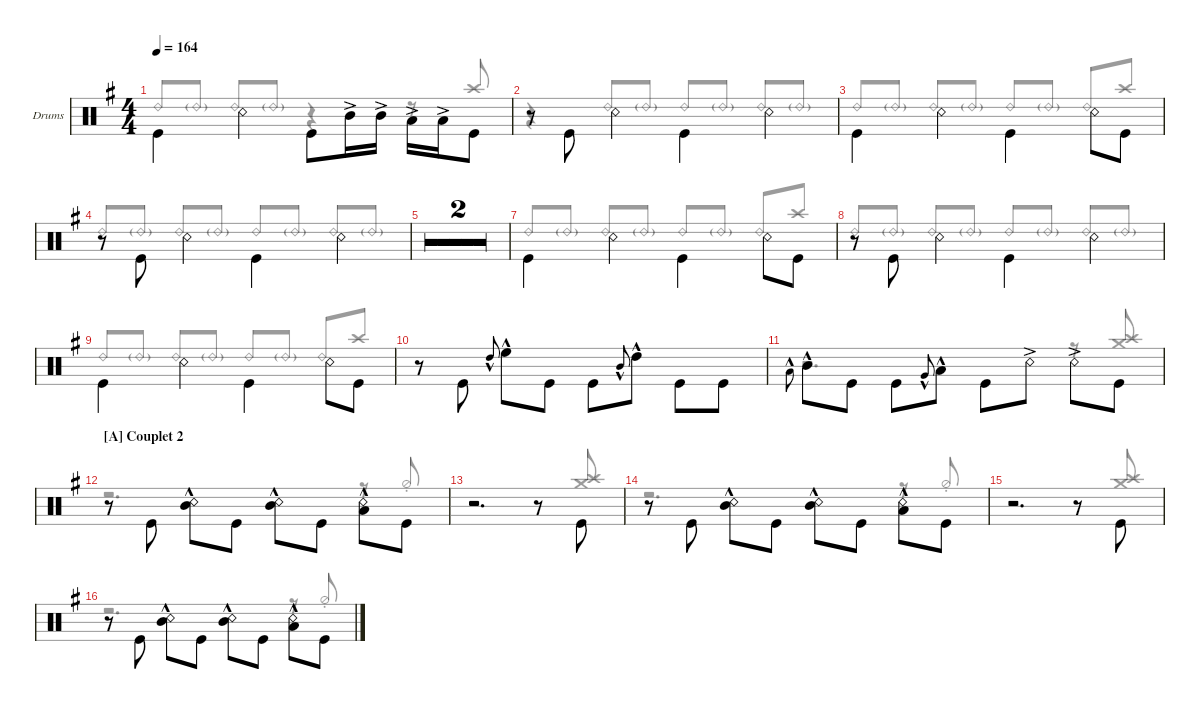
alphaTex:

\defaultSystemsLayout 4
\hideDynamics
\bracketExtendMode groupsimilarinstruments
\firstSystemTrackNameOrientation horizontal
\otherSystemsTrackNameOrientation horizontal
\track ("Drumkit" "Drums") {multiBarRest instrument percussion}
\staff {score}
\articulation defaults
\voice
\ts (4 4)
\tempo 164
\clef neutral
\ks eminor "Kick (hit)".4{dy ff beam invert} "Snare (rim shot)".4{beam invert} "Kick (hit)".8{beam invert} "Mid Tom (hit)"{ac}.16 "Mid Tom (hit)"{ac}.16 "Low Tom (hit)"{ac}.16{beam invert} "Low Tom (hit)"{ac}.16 "Kick (hit)".8
|
r.8 "Kick (hit)".8{beam invert} "Snare (rim shot)".4{beam invert} "Kick (hit)".4{beam invert} "Snare (rim shot)".4{beam invert} |
"Kick (hit)".4{beam invert} "Snare (rim shot)".4{beam invert} "Kick (hit)".4{beam invert} "Snare (rim shot)".8{beam invert} "Kick (hit)".8 |
r.8 "Kick (hit)".8{beam invert} "Snare (rim shot)".4{beam invert} "Kick (hit)".4{beam invert} "Snare (rim shot)".4{beam invert} |
\simile firstofdouble
|
\simile secondofdouble
|
\simile none "Kick (hit)".4{beam invert} "Snare (rim shot)".4{beam invert} "Kick (hit)".4{beam invert} "Snare (rim shot)".8{beam invert} "Kick (hit)".8
|
r.8 "Kick (hit)".8{beam invert} "Snare (rim shot)".4{beam invert} "Kick (hit)".4{beam invert} "Snare (rim shot)".4{beam invert} |
"Kick (hit)".4{beam invert} "Snare (rim shot)".4{beam invert} "Kick (hit)".4{beam invert} "Snare (rim shot)".8{beam invert} "Kick (hit)".8 |
r.8 "Kick (hit)".8{beam invert} "High Tom (hit)"{hac}.8{gr onbeat} "High Floor Tom (hit)"{hac}.8{beam invert} "Kick (hit)".8 "Kick (hit)".8{beam invert} "Mid Tom (hit)"{hac}.8{gr onbeat} "High Tom (hit)"{hac}.8 "Kick (hit)".8{beam invert} "Kick (hit)".8 |
"Low Tom (hit)"{hac}.8{gr onbeat beam invert} "Mid Tom (hit)"{hac}.8 "Kick (hit)".8{beam invert} "Kick (hit)".8{beam invert} "Very Low Tom (hit)"{hac}.8{gr onbeat} "Low Tom (hit)"{hac}.8 "Kick (hit)".8{beam invert} "Snare (rim shot)"{ac}.8 "Snare (rim shot)"{ac}.8{beam invert} "Kick (hit)".8 |
\section ("A" "Couplet 2")
r.8 "Kick (hit)".8{beam invert} ("Snare (rim shot)" "Mid Tom (hit)"{hac}).8{beam invert} "Kick (hit)".8 ("Snare (rim shot)" "Mid Tom (hit)"{hac}).8{beam invert} "Kick (hit)".8 ("Snare (rim shot)" "Low Tom (hit)"{hac}).8{beam invert} "Kick (hit)".8 |
r.2{d} r.8 "Kick (hit)".8{beam invert} |
r.8 "Kick (hit)".8{beam invert} ("Snare (rim shot)" "Mid Tom (hit)"{hac}).8{beam invert} "Kick (hit)".8 ("Snare (rim shot)" "Mid Tom (hit)"{hac}).8{beam invert} "Kick (hit)".8 ("Snare (rim shot)" "Low Tom (hit)"{hac}).8{beam invert} "Kick (hit)".8 |
r.2{d} r.8 "Kick (hit)".8{beam invert} |
r.8 "Kick (hit)".8{beam invert} ("Snare (rim shot)" "Mid Tom (hit)"{hac}).8{beam invert} "Kick (hit)".8 ("Snare (rim shot)" "Mid Tom (hit)"{hac}).8{beam invert} "Kick (hit)".8 ("Snare (rim shot)" "Low Tom (hit)"{hac}).8{beam invert} "Kick (hit)".8
\voice
\clef neutral
\ottava regular
\simile none
\ks eminor "Ride (bell) 2".8{dy mf beam invert} "Ride (bell) 2"{g}.8 "Ride (bell) 2".8{beam invert} "Ride (bell) 2"{g}.8
r.4{beam invert} r.8 "Crash high (hit)".8{dy f beam invert} |
r.4 "Ride (bell) 2".8{dy mf beam invert} "Ride (bell) 2"{g}.8 "Ride (bell) 2".8{beam invert} "Ride (bell) 2"{g}.8 "Ride (bell) 2".8{beam invert} "Ride (bell) 2"{g}.8 |
"Ride (bell) 2".8{beam invert} "Ride (bell) 2"{g}.8 "Ride (bell) 2".8{beam invert} "Ride (bell) 2"{g}.8 "Ride (bell) 2".8{beam invert} "Ride (bell) 2"{g}.8 "Ride (bell) 2".8{beam invert} "Crash high (hit)".8{dy f} |
"Ride (bell) 2".8{dy mf beam invert} "Ride (bell) 2"{g}.8 "Ride (bell) 2".8{beam invert} "Ride (bell) 2"{g}.8 "Ride (bell) 2".8{beam invert} "Ride (bell) 2"{g}.8 "Ride (bell) 2".8{beam invert} "Ride (bell) 2"{g}.8 |
\simile firstofdouble
|
\simile secondofdouble
|
\simile none "Ride (bell) 2".8{beam invert} "Ride (bell) 2"{g}.8 "Ride (bell) 2".8{beam invert} "Ride (bell) 2"{g}.8 "Ride (bell) 2".8{beam invert} "Ride (bell) 2"{g}.8 "Ride (bell) 2".8{beam invert} "Crash high (hit)".8{dy f}
|
"Ride (bell) 2".8{dy mf beam invert} "Ride (bell) 2"{g}.8 "Ride (bell) 2".8{beam invert} "Ride (bell) 2"{g}.8 "Ride (bell) 2".8{beam invert} "Ride (bell) 2"{g}.8 "Ride (bell) 2".8{beam invert} "Ride (bell) 2"{g}.8 |
"Ride (bell) 2".8{beam invert} "Ride (bell) 2"{g}.8 "Ride (bell) 2".8{beam invert} "Ride (bell) 2"{g}.8 "Ride (bell) 2".8{beam invert} "Ride (bell) 2"{g}.8 "Ride (bell) 2".8{beam invert} "Crash high (hit)".8{dy f} |
|
r.2{d} r.8 ("Crash high (hit)" "Crash medium (hit)").8{beam invert} |
r.2{d} r.8 "Hi-Hat (half)"{st}.8{beam invert} |
r.2{d} r.8 ("Crash high (hit)" "Crash medium (hit)").8{beam invert} |
r.2{d} r.8 "Hi-Hat (half)"{st}.8{beam invert} |
r.2{d} r.8 ("Crash high (hit)" "Crash medium (hit)").8{beam invert} |
r.2{d} r.8 "Hi-Hat (half)"{st}.8{beam invert}
